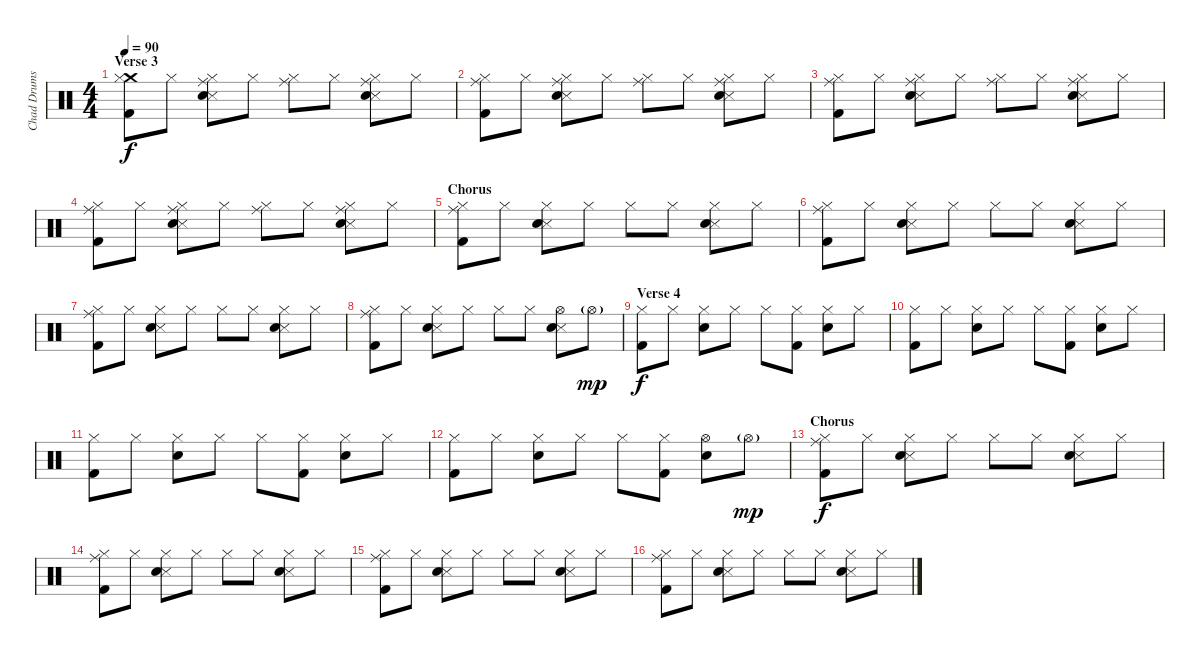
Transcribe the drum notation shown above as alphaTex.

\track ("Chad Drums" "Chad Drums") {instrument percussion}
\staff {score}
\articulation defaults
\ts (4 4)
\section ("" "Verse 3")
\tempo 90
\clef neutral
\ks c
("Crash medium (hit)" "Hi-Hat (closed)" "Kick (hit) 2").8{dy f} "Hi-Hat (closed)".8 ("Ride (middle)" "Hi-Hat (closed)" "Snare (side stick) 3" "Snare (hit) 2").8 "Hi-Hat (closed)".8 ("Ride (middle)" "Hi-Hat (closed)").8 "Hi-Hat (closed)".8 ("Ride (middle)" "Hi-Hat (closed)" "Snare (side stick) 3" "Snare (hit) 2").8 "Hi-Hat (closed)".8 |
("Ride (middle)" "Hi-Hat (closed)" "Kick (hit) 2").8 "Hi-Hat (closed)".8 ("Ride (middle)" "Hi-Hat (closed)" "Snare (side stick) 3" "Snare (hit) 2").8 "Hi-Hat (closed)".8 ("Ride (middle)" "Hi-Hat (closed)").8 "Hi-Hat (closed)".8 ("Ride (middle)" "Hi-Hat (closed)" "Snare (side stick) 3" "Snare (hit) 2").8 "Hi-Hat (closed)".8 |
("Ride (middle)" "Hi-Hat (closed)" "Kick (hit) 2").8 "Hi-Hat (closed)".8 ("Ride (middle)" "Hi-Hat (closed)" "Snare (side stick) 3" "Snare (hit) 2").8 "Hi-Hat (closed)".8 ("Ride (middle)" "Hi-Hat (closed)").8 "Hi-Hat (closed)".8 ("Ride (middle)" "Hi-Hat (closed)" "Snare (side stick) 3" "Snare (hit) 2").8 "Hi-Hat (closed)".8 |
("Ride (middle)" "Hi-Hat (closed)" "Kick (hit) 2").8 "Hi-Hat (closed)".8 ("Ride (middle)" "Hi-Hat (closed)" "Snare (side stick) 3" "Snare (hit) 2").8 "Hi-Hat (closed)".8 ("Ride (middle)" "Hi-Hat (closed)").8 "Hi-Hat (closed)".8 ("Ride (middle)" "Hi-Hat (closed)" "Snare (side stick) 3" "Snare (hit) 2").8 "Hi-Hat (closed)".8 |
\section ("" "Chorus")
("Ride (middle)" "Hi-Hat (closed)" "Kick (hit) 2").8 "Hi-Hat (closed)".8 ("Hi-Hat (closed)" "Snare (side stick) 3" "Snare (hit) 2").8 "Hi-Hat (closed)".8 "Hi-Hat (closed)".8 "Hi-Hat (closed)".8 ("Hi-Hat (closed)" "Snare (side stick) 3" "Snare (hit) 2").8 "Hi-Hat (closed)".8 |
("Ride (middle)" "Hi-Hat (closed)" "Kick (hit) 2").8 "Hi-Hat (closed)".8 ("Hi-Hat (closed)" "Snare (side stick) 3" "Snare (hit) 2").8 "Hi-Hat (closed)".8 "Hi-Hat (closed)".8 "Hi-Hat (closed)".8 ("Hi-Hat (closed)" "Snare (side stick) 3" "Snare (hit) 2").8 "Hi-Hat (closed)".8 |
("Ride (middle)" "Hi-Hat (closed)" "Kick (hit) 2").8 "Hi-Hat (closed)".8 ("Hi-Hat (closed)" "Snare (side stick) 3" "Snare (hit) 2").8 "Hi-Hat (closed)".8 "Hi-Hat (closed)".8 "Hi-Hat (closed)".8 ("Hi-Hat (closed)" "Snare (side stick) 3" "Snare (hit) 2").8 "Hi-Hat (closed)".8 |
("Ride (middle)" "Hi-Hat (closed)" "Kick (hit) 2").8 "Hi-Hat (closed)".8 ("Hi-Hat (closed)" "Snare (side stick) 3" "Snare (hit) 2").8 "Hi-Hat (closed)".8 "Hi-Hat (closed)".8 "Hi-Hat (closed)".8 ("Hi-Hat (open)" "Snare (side stick) 3" "Snare (hit) 2").8 "Hi-Hat (open)"{g}.8{dy mp} |
\section ("" "Verse 4")
("Hi-Hat (closed)" "Kick (hit) 2").8{dy f} "Hi-Hat (closed)".8 ("Hi-Hat (closed)" "Snare (hit) 2").8 "Hi-Hat (closed)".8 "Hi-Hat (closed)".8 ("Hi-Hat (closed)" "Kick (hit) 2").8 ("Hi-Hat (closed)" "Snare (hit) 2").8 "Hi-Hat (closed)".8 |
("Hi-Hat (closed)" "Kick (hit) 2").8 "Hi-Hat (closed)".8 ("Hi-Hat (closed)" "Snare (hit) 2").8 "Hi-Hat (closed)".8 "Hi-Hat (closed)".8 ("Hi-Hat (closed)" "Kick (hit) 2").8 ("Hi-Hat (closed)" "Snare (hit) 2").8 "Hi-Hat (closed)".8 |
("Hi-Hat (closed)" "Kick (hit) 2").8 "Hi-Hat (closed)".8 ("Hi-Hat (closed)" "Snare (hit) 2").8 "Hi-Hat (closed)".8 "Hi-Hat (closed)".8 ("Hi-Hat (closed)" "Kick (hit) 2").8 ("Hi-Hat (closed)" "Snare (hit) 2").8 "Hi-Hat (closed)".8 |
("Hi-Hat (closed)" "Kick (hit) 2").8 "Hi-Hat (closed)".8 ("Hi-Hat (closed)" "Snare (hit) 2").8 "Hi-Hat (closed)".8 "Hi-Hat (closed)".8 ("Hi-Hat (closed)" "Kick (hit) 2").8 ("Hi-Hat (open)" "Snare (hit) 2").8 "Hi-Hat (open)"{g}.8{dy mp} |
\section ("" "Chorus")
("Ride (middle)" "Hi-Hat (closed)" "Kick (hit) 2").8{dy f} "Hi-Hat (closed)".8 ("Hi-Hat (closed)" "Snare (side stick) 3" "Snare (hit) 2").8 "Hi-Hat (closed)".8 "Hi-Hat (closed)".8 "Hi-Hat (closed)".8 ("Hi-Hat (closed)" "Snare (side stick) 3" "Snare (hit) 2").8 "Hi-Hat (closed)".8 |
("Ride (middle)" "Hi-Hat (closed)" "Kick (hit) 2").8 "Hi-Hat (closed)".8 ("Hi-Hat (closed)" "Snare (side stick) 3" "Snare (hit) 2").8 "Hi-Hat (closed)".8 "Hi-Hat (closed)".8 "Hi-Hat (closed)".8 ("Hi-Hat (closed)" "Snare (side stick) 3" "Snare (hit) 2").8 "Hi-Hat (closed)".8 |
("Ride (middle)" "Hi-Hat (closed)" "Kick (hit) 2").8 "Hi-Hat (closed)".8 ("Hi-Hat (closed)" "Snare (side stick) 3" "Snare (hit) 2").8 "Hi-Hat (closed)".8 "Hi-Hat (closed)".8 "Hi-Hat (closed)".8 ("Hi-Hat (closed)" "Snare (side stick) 3" "Snare (hit) 2").8 "Hi-Hat (closed)".8 |
("Ride (middle)" "Hi-Hat (closed)" "Kick (hit) 2").8 "Hi-Hat (closed)".8 ("Hi-Hat (closed)" "Snare (side stick) 3" "Snare (hit) 2").8 "Hi-Hat (closed)".8 "Hi-Hat (closed)".8 "Hi-Hat (closed)".8 ("Hi-Hat (closed)" "Snare (side stick) 3" "Snare (hit) 2").8 "Hi-Hat (closed)".8
